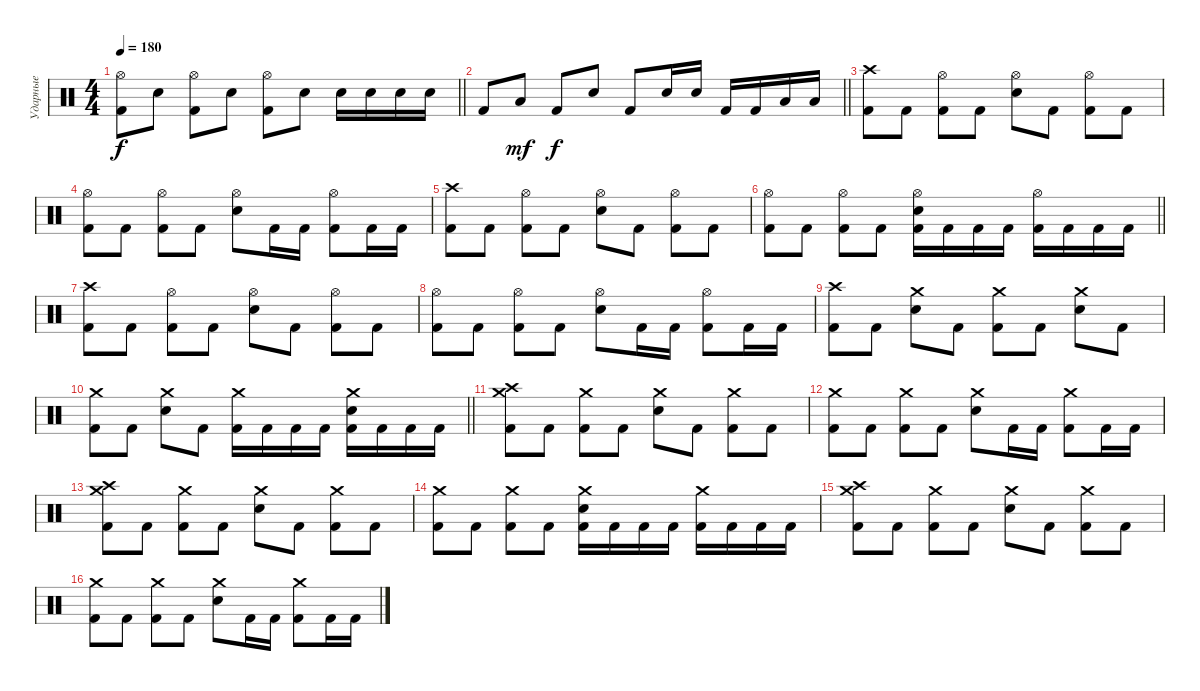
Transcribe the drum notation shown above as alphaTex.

\track ("Ударные" "Ударные") {instrument percussion}
\staff {score}
\articulation defaults
\ts (4 4)
\tempo 180
\clef neutral
\barLineRight lightlight
\ks c
("Hi-Hat (open)" "Kick (hit) 2").8{dy f} "Electric Snare (hit)".8 ("Hi-Hat (open)" "Kick (hit) 2").8 "Electric Snare (hit)".8 ("Hi-Hat (open)" "Kick (hit) 2").8 "Electric Snare (hit)".8 "Electric Snare (hit)".16 "Electric Snare (hit)".16 "Electric Snare (hit)".16 "Electric Snare (hit)".16 |
\barLineRight lightlight "Kick (hit) 2".8 "Low Tom (hit)".8{dy mf} "Kick (hit) 2".8{dy f} "Electric Snare (hit)".8 "Kick (hit) 2".8 "Electric Snare (hit)".16 "Electric Snare (hit)".16 "Kick (hit) 2".16 "Kick (hit) 2".16 "Low Tom (hit)".16 "Low Tom (hit)".16
|
\section ("" "")
("Crash high (hit)" "Kick (hit) 2").8 "Kick (hit) 2".8 ("Hi-Hat (open)" "Kick (hit) 2").8 "Kick (hit) 2".8 ("Hi-Hat (open)" "Electric Snare (hit)").8 "Kick (hit) 2".8 ("Hi-Hat (open)" "Kick (hit) 2").8 "Kick (hit) 2".8 |
("Hi-Hat (open)" "Kick (hit) 2").8 "Kick (hit) 2".8 ("Hi-Hat (open)" "Kick (hit) 2").8 "Kick (hit) 2".8 ("Hi-Hat (open)" "Electric Snare (hit)").8 "Kick (hit) 2".16 "Kick (hit) 2".16 ("Hi-Hat (open)" "Kick (hit) 2").8 "Kick (hit) 2".16 "Kick (hit) 2".16 |
("Crash high (hit)" "Kick (hit) 2").8 "Kick (hit) 2".8 ("Hi-Hat (open)" "Kick (hit) 2").8 "Kick (hit) 2".8 ("Hi-Hat (open)" "Electric Snare (hit)").8 "Kick (hit) 2".8 ("Hi-Hat (open)" "Kick (hit) 2").8 "Kick (hit) 2".8 |
\barLineRight lightlight
("Hi-Hat (open)" "Kick (hit) 2").8 "Kick (hit) 2".8 ("Hi-Hat (open)" "Kick (hit) 2").8 "Kick (hit) 2".8 ("Hi-Hat (open)" "Electric Snare (hit)" "Kick (hit) 2").16 "Kick (hit) 2".16 "Kick (hit) 2".16 "Kick (hit) 2".16 ("Hi-Hat (open)" "Kick (hit) 2").16 "Kick (hit) 2".16 "Kick (hit) 2".16 "Kick (hit) 2".16 |
("Crash high (hit)" "Kick (hit) 2").8 "Kick (hit) 2".8 ("Hi-Hat (open)" "Kick (hit) 2").8 "Kick (hit) 2".8 ("Hi-Hat (open)" "Electric Snare (hit)").8 "Kick (hit) 2".8 ("Hi-Hat (open)" "Kick (hit) 2").8 "Kick (hit) 2".8 |
("Hi-Hat (open)" "Kick (hit) 2").8 "Kick (hit) 2".8 ("Hi-Hat (open)" "Kick (hit) 2").8 "Kick (hit) 2".8 ("Hi-Hat (open)" "Electric Snare (hit)").8 "Kick (hit) 2".16 "Kick (hit) 2".16 ("Hi-Hat (open)" "Kick (hit) 2").8 "Kick (hit) 2".16 "Kick (hit) 2".16 |
("Crash high (hit)" "Kick (hit) 2").8 "Kick (hit) 2".8 ("Crash medium (hit)" "Electric Snare (hit)").8 "Kick (hit) 2".8 ("Crash medium (hit)" "Kick (hit) 2").8 "Kick (hit) 2".8 ("Crash medium (hit)" "Electric Snare (hit)").8 "Kick (hit) 2".8 |
\barLineRight lightlight
("Crash medium (hit)" "Kick (hit) 2").8 "Kick (hit) 2".8 ("Crash medium (hit)" "Electric Snare (hit)").8 "Kick (hit) 2".8 ("Crash medium (hit)" "Kick (hit) 2").16 "Kick (hit) 2".16 "Kick (hit) 2".16 "Kick (hit) 2".16 ("Crash medium (hit)" "Electric Snare (hit)" "Kick (hit) 2").16 "Kick (hit) 2".16 "Kick (hit) 2".16 "Kick (hit) 2".16 |
\section ("" "")
("Crash high (hit)" "Crash medium (hit)" "Kick (hit) 2").8 "Kick (hit) 2".8 ("Crash medium (hit)" "Kick (hit) 2").8 "Kick (hit) 2".8 ("Crash medium (hit)" "Electric Snare (hit)").8 "Kick (hit) 2".8 ("Crash medium (hit)" "Kick (hit) 2").8 "Kick (hit) 2".8 |
("Crash medium (hit)" "Kick (hit) 2").8 "Kick (hit) 2".8 ("Crash medium (hit)" "Kick (hit) 2").8 "Kick (hit) 2".8 ("Crash medium (hit)" "Electric Snare (hit)").8 "Kick (hit) 2".16 "Kick (hit) 2".16 ("Crash medium (hit)" "Kick (hit) 2").8 "Kick (hit) 2".16 "Kick (hit) 2".16 |
("Crash medium (hit)" "Crash high (hit)" "Kick (hit) 2").8 "Kick (hit) 2".8 ("Crash medium (hit)" "Kick (hit) 2").8 "Kick (hit) 2".8 ("Crash medium (hit)" "Electric Snare (hit)").8 "Kick (hit) 2".8 ("Crash medium (hit)" "Kick (hit) 2").8 "Kick (hit) 2".8 |
("Crash medium (hit)" "Kick (hit) 2").8 "Kick (hit) 2".8 ("Crash medium (hit)" "Kick (hit) 2").8 "Kick (hit) 2".8 ("Crash medium (hit)" "Electric Snare (hit)" "Kick (hit) 2").16 "Kick (hit) 2".16 "Kick (hit) 2".16 "Kick (hit) 2".16 ("Crash medium (hit)" "Kick (hit) 2").16 "Kick (hit) 2".16 "Kick (hit) 2".16 "Kick (hit) 2".16 |
("Crash high (hit)" "Crash medium (hit)" "Kick (hit) 2").8 "Kick (hit) 2".8 ("Crash medium (hit)" "Kick (hit) 2").8 "Kick (hit) 2".8 ("Crash medium (hit)" "Electric Snare (hit)").8 "Kick (hit) 2".8 ("Crash medium (hit)" "Kick (hit) 2").8 "Kick (hit) 2".8 |
("Crash medium (hit)" "Kick (hit) 2").8 "Kick (hit) 2".8 ("Crash medium (hit)" "Kick (hit) 2").8 "Kick (hit) 2".8 ("Crash medium (hit)" "Electric Snare (hit)").8 "Kick (hit) 2".16 "Kick (hit) 2".16 ("Crash medium (hit)" "Kick (hit) 2").8 "Kick (hit) 2".16 "Kick (hit) 2".16
